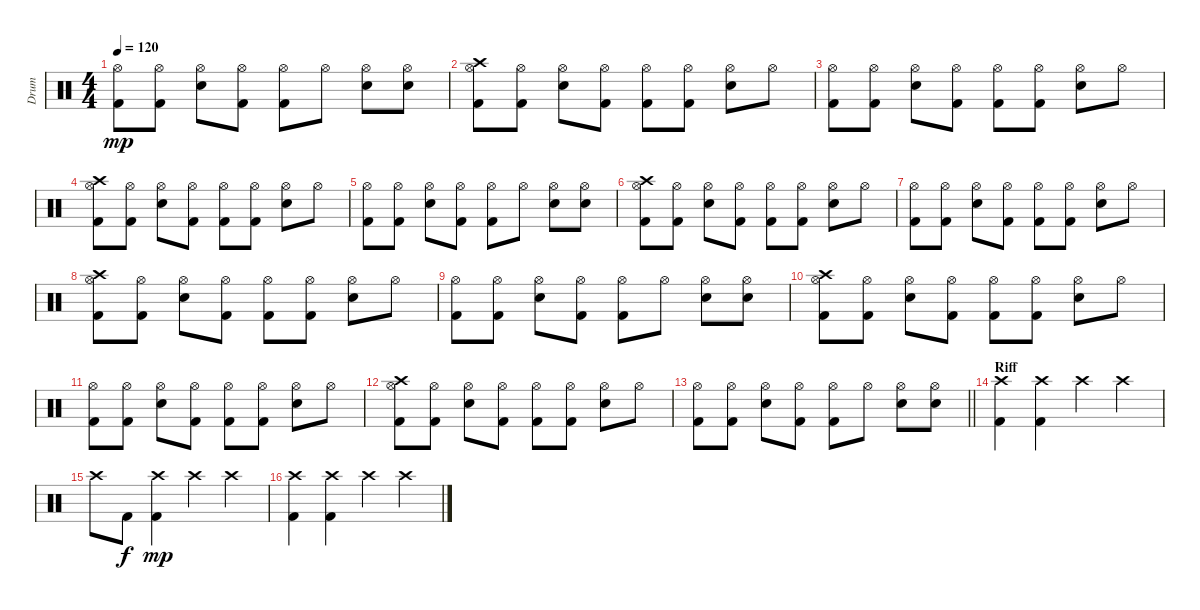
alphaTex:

\track ("Drum" "Drum") {instrument percussion}
\staff {score}
\articulation defaults
\ts (4 4)
\tempo 120
\clef neutral
\ks c
("Hi-Hat (open)" "Kick (hit) 2").8{dy mp} ("Hi-Hat (open)" "Kick (hit) 2").8 ("Hi-Hat (open)" "Snare (hit) 2").8 ("Hi-Hat (open)" "Kick (hit) 2").8 ("Hi-Hat (open)" "Kick (hit) 2").8 "Hi-Hat (open)".8 ("Hi-Hat (open)" "Snare (hit) 2").8 ("Hi-Hat (open)" "Snare (hit) 2").8 |
("Hi-Hat (open)" "Crash high (hit)" "Kick (hit) 2").8 ("Hi-Hat (open)" "Kick (hit) 2").8 ("Hi-Hat (open)" "Snare (hit) 2").8 ("Hi-Hat (open)" "Kick (hit) 2").8 ("Hi-Hat (open)" "Kick (hit) 2").8 ("Hi-Hat (open)" "Kick (hit) 2").8 ("Hi-Hat (open)" "Snare (hit) 2").8 "Hi-Hat (open)".8 |
("Hi-Hat (open)" "Kick (hit) 2").8 ("Hi-Hat (open)" "Kick (hit) 2").8 ("Hi-Hat (open)" "Snare (hit) 2").8 ("Hi-Hat (open)" "Kick (hit) 2").8 ("Hi-Hat (open)" "Kick (hit) 2").8 ("Hi-Hat (open)" "Kick (hit) 2").8 ("Hi-Hat (open)" "Snare (hit) 2").8 "Hi-Hat (open)".8 |
("Hi-Hat (open)" "Crash high (hit)" "Kick (hit) 2").8 ("Hi-Hat (open)" "Kick (hit) 2").8 ("Hi-Hat (open)" "Snare (hit) 2").8 ("Hi-Hat (open)" "Kick (hit) 2").8 ("Hi-Hat (open)" "Kick (hit) 2").8 ("Hi-Hat (open)" "Kick (hit) 2").8 ("Hi-Hat (open)" "Snare (hit) 2").8 "Hi-Hat (open)".8 |
("Hi-Hat (open)" "Kick (hit) 2").8 ("Hi-Hat (open)" "Kick (hit) 2").8 ("Hi-Hat (open)" "Snare (hit) 2").8 ("Hi-Hat (open)" "Kick (hit) 2").8 ("Hi-Hat (open)" "Kick (hit) 2").8 "Hi-Hat (open)".8 ("Hi-Hat (open)" "Snare (hit) 2").8 ("Hi-Hat (open)" "Snare (hit) 2").8 |
("Hi-Hat (open)" "Crash high (hit)" "Kick (hit) 2").8 ("Hi-Hat (open)" "Kick (hit) 2").8 ("Hi-Hat (open)" "Snare (hit) 2").8 ("Hi-Hat (open)" "Kick (hit) 2").8 ("Hi-Hat (open)" "Kick (hit) 2").8 ("Hi-Hat (open)" "Kick (hit) 2").8 ("Hi-Hat (open)" "Snare (hit) 2").8 "Hi-Hat (open)".8 |
("Hi-Hat (open)" "Kick (hit) 2").8 ("Hi-Hat (open)" "Kick (hit) 2").8 ("Hi-Hat (open)" "Snare (hit) 2").8 ("Hi-Hat (open)" "Kick (hit) 2").8 ("Hi-Hat (open)" "Kick (hit) 2").8 ("Hi-Hat (open)" "Kick (hit) 2").8 ("Hi-Hat (open)" "Snare (hit) 2").8 "Hi-Hat (open)".8 |
("Hi-Hat (open)" "Crash high (hit)" "Kick (hit) 2").8 ("Hi-Hat (open)" "Kick (hit) 2").8 ("Hi-Hat (open)" "Snare (hit) 2").8 ("Hi-Hat (open)" "Kick (hit) 2").8 ("Hi-Hat (open)" "Kick (hit) 2").8 ("Hi-Hat (open)" "Kick (hit) 2").8 ("Hi-Hat (open)" "Snare (hit) 2").8 "Hi-Hat (open)".8 |
("Hi-Hat (open)" "Kick (hit) 2").8 ("Hi-Hat (open)" "Kick (hit) 2").8 ("Hi-Hat (open)" "Snare (hit) 2").8 ("Hi-Hat (open)" "Kick (hit) 2").8 ("Hi-Hat (open)" "Kick (hit) 2").8 "Hi-Hat (open)".8 ("Hi-Hat (open)" "Snare (hit) 2").8 ("Hi-Hat (open)" "Snare (hit) 2").8 |
("Hi-Hat (open)" "Crash high (hit)" "Kick (hit) 2").8 ("Hi-Hat (open)" "Kick (hit) 2").8 ("Hi-Hat (open)" "Snare (hit) 2").8 ("Hi-Hat (open)" "Kick (hit) 2").8 ("Hi-Hat (open)" "Kick (hit) 2").8 ("Hi-Hat (open)" "Kick (hit) 2").8 ("Hi-Hat (open)" "Snare (hit) 2").8 "Hi-Hat (open)".8 |
("Hi-Hat (open)" "Kick (hit) 2").8 ("Hi-Hat (open)" "Kick (hit) 2").8 ("Hi-Hat (open)" "Snare (hit) 2").8 ("Hi-Hat (open)" "Kick (hit) 2").8 ("Hi-Hat (open)" "Kick (hit) 2").8 ("Hi-Hat (open)" "Kick (hit) 2").8 ("Hi-Hat (open)" "Snare (hit) 2").8 "Hi-Hat (open)".8 |
("Hi-Hat (open)" "Crash high (hit)" "Kick (hit) 2").8 ("Hi-Hat (open)" "Kick (hit) 2").8 ("Hi-Hat (open)" "Snare (hit) 2").8 ("Hi-Hat (open)" "Kick (hit) 2").8 ("Hi-Hat (open)" "Kick (hit) 2").8 ("Hi-Hat (open)" "Kick (hit) 2").8 ("Hi-Hat (open)" "Snare (hit) 2").8 "Hi-Hat (open)".8 |
\barLineRight lightlight
("Hi-Hat (open)" "Kick (hit) 2").8 ("Hi-Hat (open)" "Kick (hit) 2").8 ("Hi-Hat (open)" "Snare (hit) 2").8 ("Hi-Hat (open)" "Kick (hit) 2").8 ("Hi-Hat (open)" "Kick (hit) 2").8 "Hi-Hat (open)".8 ("Hi-Hat (open)" "Snare (hit) 2").8 ("Hi-Hat (open)" "Snare (hit) 2").8 |
\section ("" "Riff")
("Crash high (hit)" "Kick (hit) 2").4 ("Crash high (hit)" "Kick (hit) 2").4 "Crash high (hit)".4 "Crash high (hit)".4 |
"Crash high (hit)".8 "Kick (hit) 2".8{dy f} ("Crash high (hit)" "Kick (hit) 2").4{dy mp} "Crash high (hit)".4 "Crash high (hit)".4 |
("Crash high (hit)" "Kick (hit) 2").4 ("Crash high (hit)" "Kick (hit) 2").4 "Crash high (hit)".4 "Crash high (hit)".4
